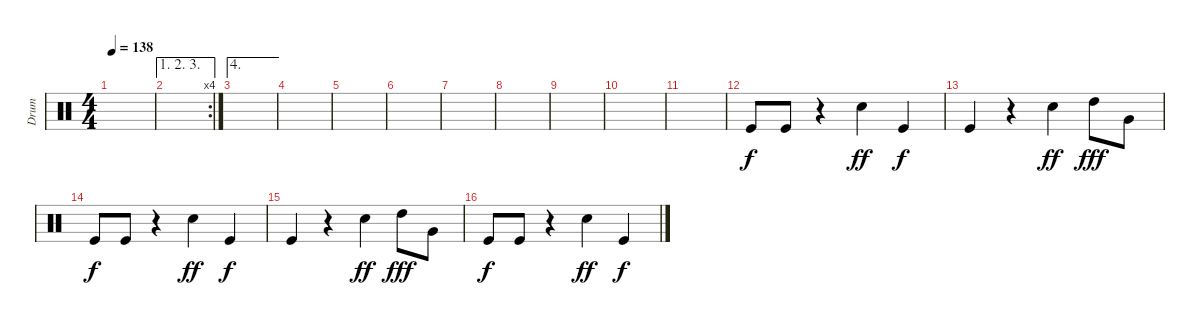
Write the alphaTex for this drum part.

\track ("Drum" "Drum") {instrument percussion}
\staff {score}
\articulation defaults
\ts (4 4)
\tempo 138
\clef neutral
\ks c
|
\ae (1 2 3)
\rc 4
|
\ae 4
|
|
|
|
|
|
|
|
|
"Kick (hit)".8 "Kick (hit)".8 r.4 "Snare (hit) 2".4{dy ff} "Kick (hit)".4{dy f} |
"Kick (hit)".4 r.4 "Snare (hit) 2".4{dy ff} "High Tom (hit)".8{dy fff} "Very Low Tom (hit)".8 |
"Kick (hit)".8{dy f} "Kick (hit)".8 r.4 "Snare (hit) 2".4{dy ff} "Kick (hit)".4{dy f} |
"Kick (hit)".4 r.4 "Snare (hit) 2".4{dy ff} "High Tom (hit)".8{dy fff} "Very Low Tom (hit)".8 |
"Kick (hit)".8{dy f} "Kick (hit)".8 r.4 "Snare (hit) 2".4{dy ff} "Kick (hit)".4{dy f}
